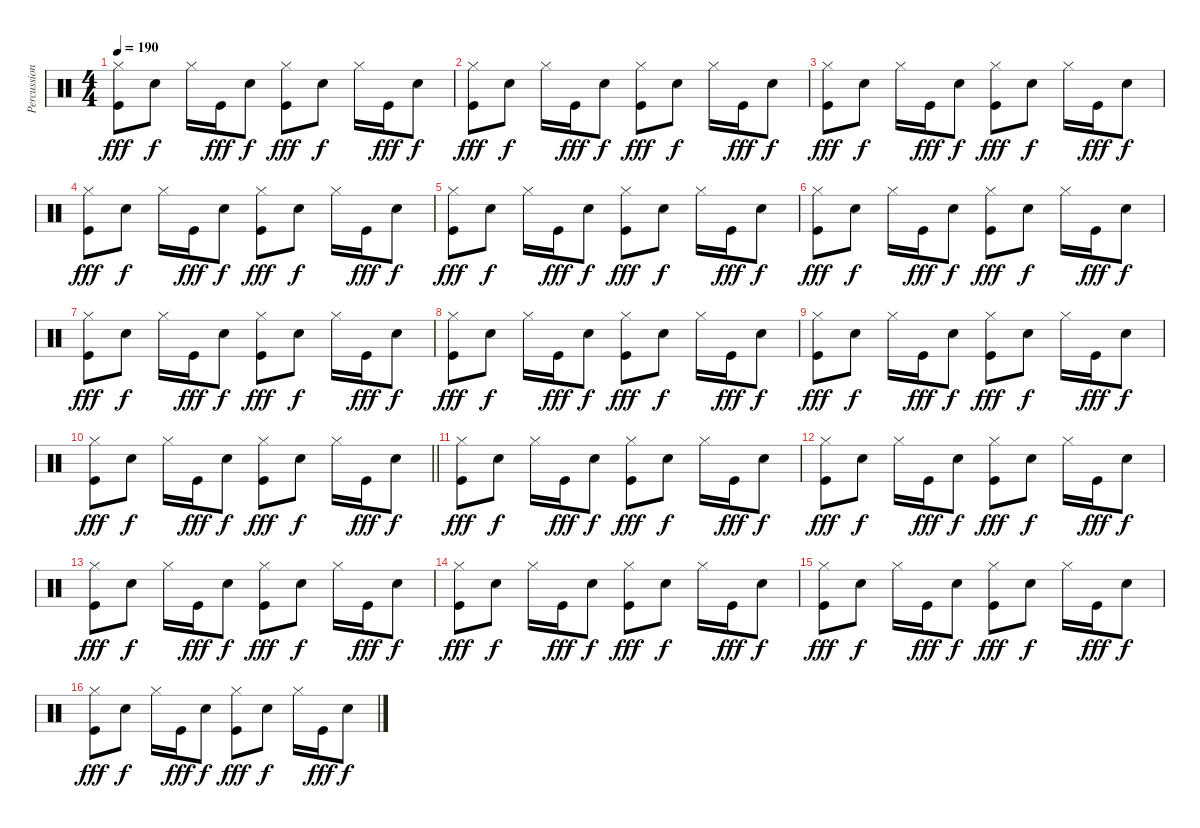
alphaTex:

\track ("Percussioni" "Percussion") {instrument percussion}
\staff {score}
\articulation defaults
\ts (4 4)
\tempo 190
\clef neutral
\ks c
("Kick (hit)" "Hi-Hat (closed)").8{dy fff} "Snare (hit) 2".8{dy f} "Hi-Hat (closed)".16 "Kick (hit)".16{dy fff} "Snare (hit) 2".8{dy f} ("Kick (hit)" "Hi-Hat (closed)").8{dy fff} "Snare (hit) 2".8{dy f} "Hi-Hat (closed)".16 "Kick (hit)".16{dy fff} "Snare (hit) 2".8{dy f} |
("Kick (hit)" "Hi-Hat (closed)").8{dy fff} "Snare (hit) 2".8{dy f} "Hi-Hat (closed)".16 "Kick (hit)".16{dy fff} "Snare (hit) 2".8{dy f} ("Kick (hit)" "Hi-Hat (closed)").8{dy fff} "Snare (hit) 2".8{dy f} "Hi-Hat (closed)".16 "Kick (hit)".16{dy fff} "Snare (hit) 2".8{dy f} |
("Kick (hit)" "Hi-Hat (closed)").8{dy fff} "Snare (hit) 2".8{dy f} "Hi-Hat (closed)".16 "Kick (hit)".16{dy fff} "Snare (hit) 2".8{dy f} ("Kick (hit)" "Hi-Hat (closed)").8{dy fff} "Snare (hit) 2".8{dy f} "Hi-Hat (closed)".16 "Kick (hit)".16{dy fff} "Snare (hit) 2".8{dy f} |
("Kick (hit)" "Hi-Hat (closed)").8{dy fff} "Snare (hit) 2".8{dy f} "Hi-Hat (closed)".16 "Kick (hit)".16{dy fff} "Snare (hit) 2".8{dy f} ("Kick (hit)" "Hi-Hat (closed)").8{dy fff} "Snare (hit) 2".8{dy f} "Hi-Hat (closed)".16 "Kick (hit)".16{dy fff} "Snare (hit) 2".8{dy f} |
("Kick (hit)" "Hi-Hat (closed)").8{dy fff} "Snare (hit) 2".8{dy f} "Hi-Hat (closed)".16 "Kick (hit)".16{dy fff} "Snare (hit) 2".8{dy f} ("Kick (hit)" "Hi-Hat (closed)").8{dy fff} "Snare (hit) 2".8{dy f} "Hi-Hat (closed)".16 "Kick (hit)".16{dy fff} "Snare (hit) 2".8{dy f} |
("Kick (hit)" "Hi-Hat (closed)").8{dy fff} "Snare (hit) 2".8{dy f} "Hi-Hat (closed)".16 "Kick (hit)".16{dy fff} "Snare (hit) 2".8{dy f} ("Kick (hit)" "Hi-Hat (closed)").8{dy fff} "Snare (hit) 2".8{dy f} "Hi-Hat (closed)".16 "Kick (hit)".16{dy fff} "Snare (hit) 2".8{dy f} |
("Kick (hit)" "Hi-Hat (closed)").8{dy fff} "Snare (hit) 2".8{dy f} "Hi-Hat (closed)".16 "Kick (hit)".16{dy fff} "Snare (hit) 2".8{dy f} ("Kick (hit)" "Hi-Hat (closed)").8{dy fff} "Snare (hit) 2".8{dy f} "Hi-Hat (closed)".16 "Kick (hit)".16{dy fff} "Snare (hit) 2".8{dy f} |
("Kick (hit)" "Hi-Hat (closed)").8{dy fff} "Snare (hit) 2".8{dy f} "Hi-Hat (closed)".16 "Kick (hit)".16{dy fff} "Snare (hit) 2".8{dy f} ("Kick (hit)" "Hi-Hat (closed)").8{dy fff} "Snare (hit) 2".8{dy f} "Hi-Hat (closed)".16 "Kick (hit)".16{dy fff} "Snare (hit) 2".8{dy f} |
("Kick (hit)" "Hi-Hat (closed)").8{dy fff} "Snare (hit) 2".8{dy f} "Hi-Hat (closed)".16 "Kick (hit)".16{dy fff} "Snare (hit) 2".8{dy f} ("Kick (hit)" "Hi-Hat (closed)").8{dy fff} "Snare (hit) 2".8{dy f} "Hi-Hat (closed)".16 "Kick (hit)".16{dy fff} "Snare (hit) 2".8{dy f} |
\barLineRight lightlight
("Kick (hit)" "Hi-Hat (closed)").8{dy fff} "Snare (hit) 2".8{dy f} "Hi-Hat (closed)".16 "Kick (hit)".16{dy fff} "Snare (hit) 2".8{dy f} ("Kick (hit)" "Hi-Hat (closed)").8{dy fff} "Snare (hit) 2".8{dy f} "Hi-Hat (closed)".16 "Kick (hit)".16{dy fff} "Snare (hit) 2".8{dy f} |
("Kick (hit)" "Hi-Hat (closed)").8{dy fff} "Snare (hit) 2".8{dy f} "Hi-Hat (closed)".16 "Kick (hit)".16{dy fff} "Snare (hit) 2".8{dy f} ("Kick (hit)" "Hi-Hat (closed)").8{dy fff} "Snare (hit) 2".8{dy f} "Hi-Hat (closed)".16 "Kick (hit)".16{dy fff} "Snare (hit) 2".8{dy f} |
("Kick (hit)" "Hi-Hat (closed)").8{dy fff} "Snare (hit) 2".8{dy f} "Hi-Hat (closed)".16 "Kick (hit)".16{dy fff} "Snare (hit) 2".8{dy f} ("Kick (hit)" "Hi-Hat (closed)").8{dy fff} "Snare (hit) 2".8{dy f} "Hi-Hat (closed)".16 "Kick (hit)".16{dy fff} "Snare (hit) 2".8{dy f} |
("Kick (hit)" "Hi-Hat (closed)").8{dy fff} "Snare (hit) 2".8{dy f} "Hi-Hat (closed)".16 "Kick (hit)".16{dy fff} "Snare (hit) 2".8{dy f} ("Kick (hit)" "Hi-Hat (closed)").8{dy fff} "Snare (hit) 2".8{dy f} "Hi-Hat (closed)".16 "Kick (hit)".16{dy fff} "Snare (hit) 2".8{dy f} |
("Kick (hit)" "Hi-Hat (closed)").8{dy fff} "Snare (hit) 2".8{dy f} "Hi-Hat (closed)".16 "Kick (hit)".16{dy fff} "Snare (hit) 2".8{dy f} ("Kick (hit)" "Hi-Hat (closed)").8{dy fff} "Snare (hit) 2".8{dy f} "Hi-Hat (closed)".16 "Kick (hit)".16{dy fff} "Snare (hit) 2".8{dy f} |
("Kick (hit)" "Hi-Hat (closed)").8{dy fff} "Snare (hit) 2".8{dy f} "Hi-Hat (closed)".16 "Kick (hit)".16{dy fff} "Snare (hit) 2".8{dy f} ("Kick (hit)" "Hi-Hat (closed)").8{dy fff} "Snare (hit) 2".8{dy f} "Hi-Hat (closed)".16 "Kick (hit)".16{dy fff} "Snare (hit) 2".8{dy f} |
("Kick (hit)" "Hi-Hat (closed)").8{dy fff} "Snare (hit) 2".8{dy f} "Hi-Hat (closed)".16 "Kick (hit)".16{dy fff} "Snare (hit) 2".8{dy f} ("Kick (hit)" "Hi-Hat (closed)").8{dy fff} "Snare (hit) 2".8{dy f} "Hi-Hat (closed)".16 "Kick (hit)".16{dy fff} "Snare (hit) 2".8{dy f}
